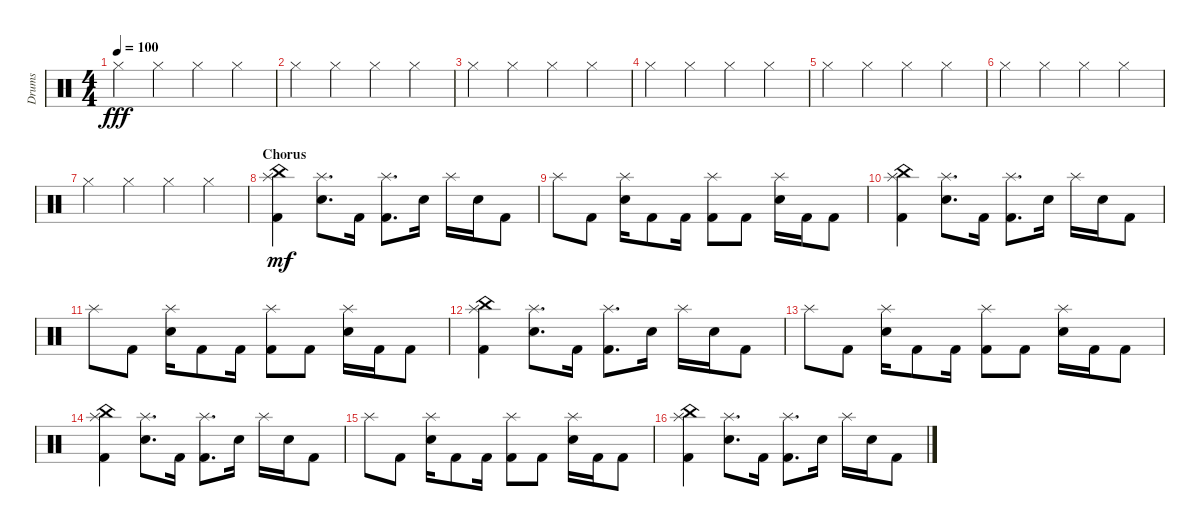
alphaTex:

\defaultSystemsLayout 4
\bracketExtendMode groupsimilarinstruments
\otherSystemsTrackNameOrientation horizontal
\track ("Prakarsh" "Drums") {instrument percussion}
\staff {score}
\articulation defaults
\ts (4 4)
\tempo 100
\clef neutral
\ks c "Hi-Hat (closed)".4{dy fff beam Down} "Hi-Hat (closed)".4{beam Down} "Hi-Hat (closed)".4{beam Down} "Hi-Hat (closed)".4{beam Down}
|
"Hi-Hat (closed)".4{beam Down} "Hi-Hat (closed)".4{beam Down} "Hi-Hat (closed)".4{beam Down} "Hi-Hat (closed)".4{beam Down} |
"Hi-Hat (closed)".4{beam Down} "Hi-Hat (closed)".4{beam Down} "Hi-Hat (closed)".4{beam Down} "Hi-Hat (closed)".4{beam Down} |
"Hi-Hat (closed)".4{beam Down} "Hi-Hat (closed)".4{beam Down} "Hi-Hat (closed)".4{beam Down} "Hi-Hat (closed)".4{beam Down} |
"Hi-Hat (closed)".4{beam Down} "Hi-Hat (closed)".4{beam Down} "Hi-Hat (closed)".4{beam Down} "Hi-Hat (closed)".4{beam Down} |
"Hi-Hat (closed)".4{beam Down} "Hi-Hat (closed)".4{beam Down} "Hi-Hat (closed)".4{beam Down} "Hi-Hat (closed)".4{beam Down} |
"Hi-Hat (closed)".4{beam Down} "Hi-Hat (closed)".4{beam Down} "Hi-Hat (closed)".4{beam Down} "Hi-Hat (closed)".4{beam Down} |
\section ("" "Chorus")
("Kick (hit) 2" "China (hit)" "Splash (hit)").4{dy mf beam Down} ("Snare (hit) 2" "Splash (hit)").8{d beam Down} "Kick (hit) 2".16{beam Down} ("Kick (hit) 2" "Splash (hit)").8{d beam Down} "Snare (hit) 2".16{beam Down} "Splash (hit)".16{beam Down} "Snare (hit) 2".16{beam Down} "Kick (hit) 2".8{beam Down} |
"Splash (hit)".8{beam Down} "Kick (hit) 2".8{beam Down} ("Snare (hit) 2" "Splash (hit)").16{beam Down} "Kick (hit) 2".8{beam Down} "Kick (hit) 2".16{beam Down} ("Kick (hit) 2" "Splash (hit)").8{beam Down} "Kick (hit) 2".8{beam Down} ("Snare (hit) 2" "Splash (hit)").16{beam Down} "Kick (hit) 2".16{beam Down} "Kick (hit) 2".8{beam Down} |
("Kick (hit) 2" "China (hit)" "Splash (hit)").4{beam Down} ("Snare (hit) 2" "Splash (hit)").8{d beam Down} "Kick (hit) 2".16{beam Down} ("Kick (hit) 2" "Splash (hit)").8{d beam Down} "Snare (hit) 2".16{beam Down} "Splash (hit)".16{beam Down} "Snare (hit) 2".16{beam Down} "Kick (hit) 2".8{beam Down} |
"Splash (hit)".8{beam Down} "Kick (hit) 2".8{beam Down} ("Snare (hit) 2" "Splash (hit)").16{beam Down} "Kick (hit) 2".8{beam Down} "Kick (hit) 2".16{beam Down} ("Kick (hit) 2" "Splash (hit)").8{beam Down} "Kick (hit) 2".8{beam Down} ("Snare (hit) 2" "Splash (hit)").16{beam Down} "Kick (hit) 2".16{beam Down} "Kick (hit) 2".8{beam Down} |
("Kick (hit) 2" "China (hit)" "Splash (hit)").4{beam Down} ("Snare (hit) 2" "Splash (hit)").8{d beam Down} "Kick (hit) 2".16{beam Down} ("Kick (hit) 2" "Splash (hit)").8{d beam Down} "Snare (hit) 2".16{beam Down} "Splash (hit)".16{beam Down} "Snare (hit) 2".16{beam Down} "Kick (hit) 2".8{beam Down} |
"Splash (hit)".8{beam Down} "Kick (hit) 2".8{beam Down} ("Snare (hit) 2" "Splash (hit)").16{beam Down} "Kick (hit) 2".8{beam Down} "Kick (hit) 2".16{beam Down} ("Kick (hit) 2" "Splash (hit)").8{beam Down} "Kick (hit) 2".8{beam Down} ("Snare (hit) 2" "Splash (hit)").16{beam Down} "Kick (hit) 2".16{beam Down} "Kick (hit) 2".8{beam Down} |
("Kick (hit) 2" "China (hit)" "Splash (hit)").4{beam Down} ("Snare (hit) 2" "Splash (hit)").8{d beam Down} "Kick (hit) 2".16{beam Down} ("Kick (hit) 2" "Splash (hit)").8{d beam Down} "Snare (hit) 2".16{beam Down} "Splash (hit)".16{beam Down} "Snare (hit) 2".16{beam Down} "Kick (hit) 2".8{beam Down} |
"Splash (hit)".8{beam Down} "Kick (hit) 2".8{beam Down} ("Snare (hit) 2" "Splash (hit)").16{beam Down} "Kick (hit) 2".8{beam Down} "Kick (hit) 2".16{beam Down} ("Kick (hit) 2" "Splash (hit)").8{beam Down} "Kick (hit) 2".8{beam Down} ("Snare (hit) 2" "Splash (hit)").16{beam Down} "Kick (hit) 2".16{beam Down} "Kick (hit) 2".8{beam Down} |
("Kick (hit) 2" "China (hit)" "Splash (hit)").4{beam Down} ("Snare (hit) 2" "Splash (hit)").8{d beam Down} "Kick (hit) 2".16{beam Down} ("Kick (hit) 2" "Splash (hit)").8{d beam Down} "Snare (hit) 2".16{beam Down} "Splash (hit)".16{beam Down} "Snare (hit) 2".16{beam Down} "Kick (hit) 2".8{beam Down}
